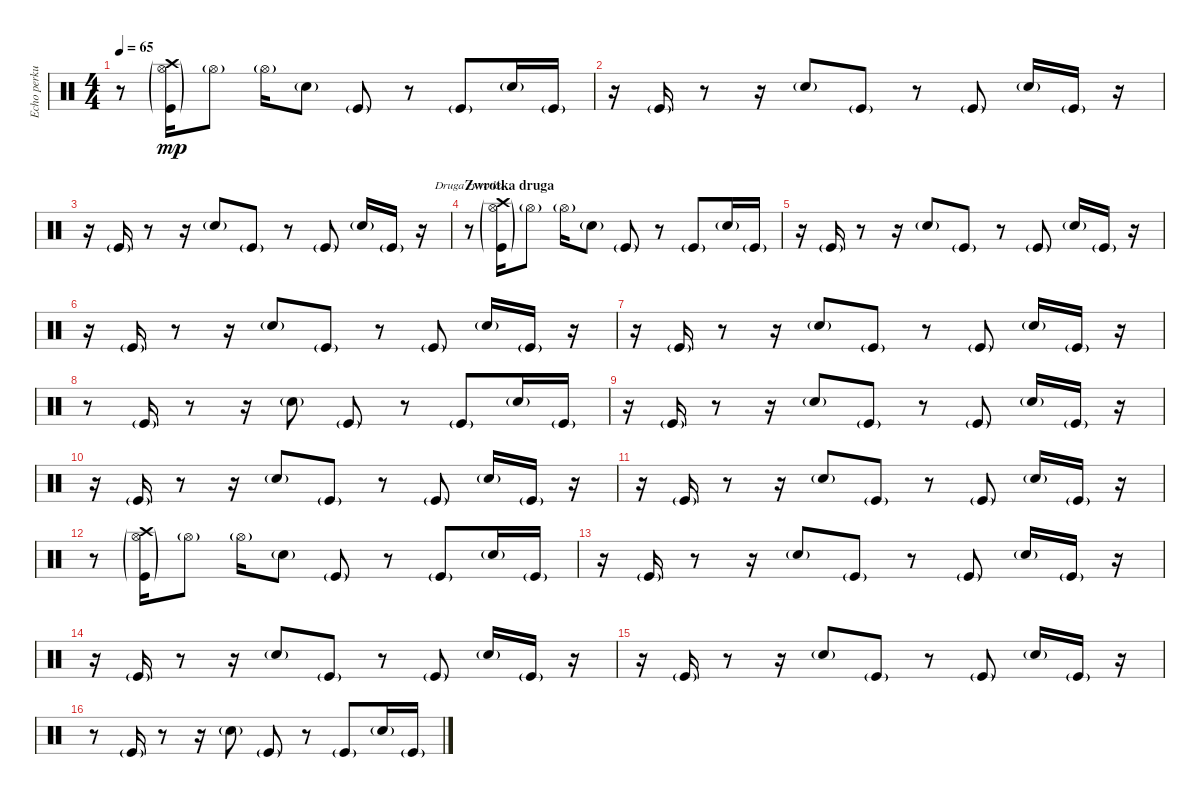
\track ("Echo perkusji 2" "Echo perku") {instrument percussion}
\staff {score}
\articulation defaults
\chord ("Druga zwrotka")
\ts (4 4)
\tempo 65
\clef neutral
\ks c
r.8{dy mp} ("Kick (hit)"{g} "Hi-Hat (open)"{g} "Crash high (hit)"{g}).16 "Hi-Hat (open)"{g}.8 "Hi-Hat (open)"{g}.16 "Snare (hit) 2"{g}.8 "Kick (hit)"{g}.8 r.8 "Kick (hit)"{g}.8 "Snare (hit) 2"{g}.16 "Kick (hit)"{g}.16 |
r.16 "Kick (hit)"{g}.16 r.8 r.16 "Snare (hit) 2"{g}.8 "Kick (hit)"{g}.8 r.8 "Kick (hit)"{g}.8 "Snare (hit) 2"{g}.16 "Kick (hit)"{g}.16 r.16 |
r.16 "Kick (hit)"{g}.16 r.8 r.16 "Snare (hit) 2"{g}.8 "Kick (hit)"{g}.8 r.8 "Kick (hit)"{g}.8 "Snare (hit) 2"{g}.16 "Kick (hit)"{g}.16 r.16 |
\section ("" "Zwrotka druga")
r.8{ch "Druga zwrotka"} ("Kick (hit)"{g} "Hi-Hat (open)"{g} "Crash high (hit)"{g}).16 "Hi-Hat (open)"{g}.8 "Hi-Hat (open)"{g}.16 "Snare (hit) 2"{g}.8 "Kick (hit)"{g}.8 r.8 "Kick (hit)"{g}.8 "Snare (hit) 2"{g}.16 "Kick (hit)"{g}.16 |
r.16 "Kick (hit)"{g}.16 r.8 r.16 "Snare (hit) 2"{g}.8 "Kick (hit)"{g}.8 r.8 "Kick (hit)"{g}.8 "Snare (hit) 2"{g}.16 "Kick (hit)"{g}.16 r.16 |
r.16 "Kick (hit)"{g}.16 r.8 r.16 "Snare (hit) 2"{g}.8 "Kick (hit)"{g}.8 r.8 "Kick (hit)"{g}.8 "Snare (hit) 2"{g}.16 "Kick (hit)"{g}.16 r.16 |
r.16 "Kick (hit)"{g}.16 r.8 r.16 "Snare (hit) 2"{g}.8 "Kick (hit)"{g}.8 r.8 "Kick (hit)"{g}.8 "Snare (hit) 2"{g}.16 "Kick (hit)"{g}.16 r.16 |
r.8 "Kick (hit)"{g}.16 r.8 r.16 "Snare (hit) 2"{g}.8 "Kick (hit)"{g}.8 r.8 "Kick (hit)"{g}.8 "Snare (hit) 2"{g}.16 "Kick (hit)"{g}.16 |
r.16 "Kick (hit)"{g}.16 r.8 r.16 "Snare (hit) 2"{g}.8 "Kick (hit)"{g}.8 r.8 "Kick (hit)"{g}.8 "Snare (hit) 2"{g}.16 "Kick (hit)"{g}.16 r.16 |
r.16 "Kick (hit)"{g}.16 r.8 r.16 "Snare (hit) 2"{g}.8 "Kick (hit)"{g}.8 r.8 "Kick (hit)"{g}.8 "Snare (hit) 2"{g}.16 "Kick (hit)"{g}.16 r.16 |
r.16 "Kick (hit)"{g}.16 r.8 r.16 "Snare (hit) 2"{g}.8 "Kick (hit)"{g}.8 r.8 "Kick (hit)"{g}.8 "Snare (hit) 2"{g}.16 "Kick (hit)"{g}.16 r.16 |
r.8 ("Kick (hit)"{g} "Hi-Hat (open)"{g} "Crash high (hit)"{g}).16 "Hi-Hat (open)"{g}.8 "Hi-Hat (open)"{g}.16 "Snare (hit) 2"{g}.8 "Kick (hit)"{g}.8 r.8 "Kick (hit)"{g}.8 "Snare (hit) 2"{g}.16 "Kick (hit)"{g}.16 |
r.16 "Kick (hit)"{g}.16 r.8 r.16 "Snare (hit) 2"{g}.8 "Kick (hit)"{g}.8 r.8 "Kick (hit)"{g}.8 "Snare (hit) 2"{g}.16 "Kick (hit)"{g}.16 r.16 |
r.16 "Kick (hit)"{g}.16 r.8 r.16 "Snare (hit) 2"{g}.8 "Kick (hit)"{g}.8 r.8 "Kick (hit)"{g}.8 "Snare (hit) 2"{g}.16 "Kick (hit)"{g}.16 r.16 |
r.16 "Kick (hit)"{g}.16 r.8 r.16 "Snare (hit) 2"{g}.8 "Kick (hit)"{g}.8 r.8 "Kick (hit)"{g}.8 "Snare (hit) 2"{g}.16 "Kick (hit)"{g}.16 r.16 |
r.8 "Kick (hit)"{g}.16 r.8 r.16 "Snare (hit) 2"{g}.8 "Kick (hit)"{g}.8 r.8 "Kick (hit)"{g}.8 "Snare (hit) 2"{g}.16 "Kick (hit)"{g}.16
